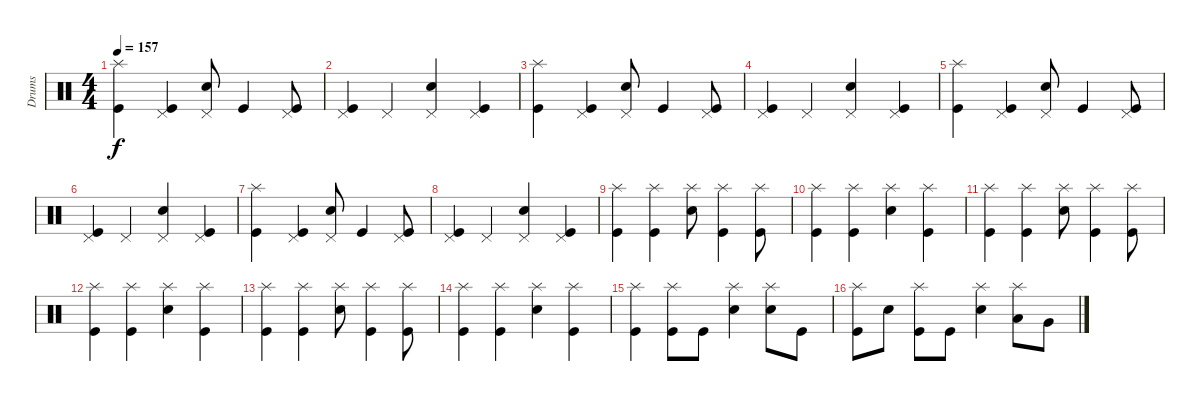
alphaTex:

\track ("Drums" "Drums") {instrument percussion}
\staff {score}
\articulation defaults
\ts (4 4)
\tempo 157
\clef neutral
\ks c
("Splash (hit)" "Kick (hit)").4{dy f} ("Pedal Hi-Hat (hit)" "Kick (hit)").4 ("Pedal Hi-Hat (hit)" "Electric Snare (hit)").8 "Kick (hit)".4 ("Pedal Hi-Hat (hit)" "Kick (hit)").8 |
("Pedal Hi-Hat (hit)" "Kick (hit)").4 "Pedal Hi-Hat (hit)".4 ("Pedal Hi-Hat (hit)" "Electric Snare (hit)").4 ("Pedal Hi-Hat (hit)" "Kick (hit)").4 |
("Splash (hit)" "Kick (hit)").4 ("Pedal Hi-Hat (hit)" "Kick (hit)").4 ("Pedal Hi-Hat (hit)" "Electric Snare (hit)").8 "Kick (hit)".4 ("Pedal Hi-Hat (hit)" "Kick (hit)").8 |
("Pedal Hi-Hat (hit)" "Kick (hit)").4 "Pedal Hi-Hat (hit)".4 ("Pedal Hi-Hat (hit)" "Electric Snare (hit)").4 ("Pedal Hi-Hat (hit)" "Kick (hit)").4 |
("Splash (hit)" "Kick (hit)").4 ("Pedal Hi-Hat (hit)" "Kick (hit)").4 ("Pedal Hi-Hat (hit)" "Electric Snare (hit)").8 "Kick (hit)".4 ("Pedal Hi-Hat (hit)" "Kick (hit)").8 |
("Pedal Hi-Hat (hit)" "Kick (hit)").4 "Pedal Hi-Hat (hit)".4 ("Pedal Hi-Hat (hit)" "Electric Snare (hit)").4 ("Pedal Hi-Hat (hit)" "Kick (hit)").4 |
("Splash (hit)" "Kick (hit)").4 ("Pedal Hi-Hat (hit)" "Kick (hit)").4 ("Pedal Hi-Hat (hit)" "Electric Snare (hit)").8 "Kick (hit)".4 ("Pedal Hi-Hat (hit)" "Kick (hit)").8 |
("Pedal Hi-Hat (hit)" "Kick (hit)").4 "Pedal Hi-Hat (hit)".4 ("Pedal Hi-Hat (hit)" "Electric Snare (hit)").4 ("Pedal Hi-Hat (hit)" "Kick (hit)").4 |
("Splash (hit)" "Kick (hit)").4 ("Splash (hit)" "Kick (hit)").4 ("Splash (hit)" "Electric Snare (hit)").8 ("Splash (hit)" "Kick (hit)").4 ("Splash (hit)" "Kick (hit)").8 |
("Splash (hit)" "Kick (hit)").4 ("Splash (hit)" "Kick (hit)").4 ("Splash (hit)" "Electric Snare (hit)").4 ("Splash (hit)" "Kick (hit)").4 |
("Splash (hit)" "Kick (hit)").4 ("Splash (hit)" "Kick (hit)").4 ("Splash (hit)" "Electric Snare (hit)").8 ("Splash (hit)" "Kick (hit)").4 ("Splash (hit)" "Kick (hit)").8 |
("Splash (hit)" "Kick (hit)").4 ("Splash (hit)" "Kick (hit)").4 ("Splash (hit)" "Electric Snare (hit)").4 ("Splash (hit)" "Kick (hit)").4 |
("Splash (hit)" "Kick (hit)").4 ("Splash (hit)" "Kick (hit)").4 ("Splash (hit)" "Electric Snare (hit)").8 ("Splash (hit)" "Kick (hit)").4 ("Splash (hit)" "Kick (hit)").8 |
("Splash (hit)" "Kick (hit)").4 ("Splash (hit)" "Kick (hit)").4 ("Splash (hit)" "Electric Snare (hit)").4 ("Splash (hit)" "Kick (hit)").4 |
("Splash (hit)" "Kick (hit)").4 ("Splash (hit)" "Kick (hit)").8 "Kick (hit)".8 ("Splash (hit)" "Electric Snare (hit)").4 ("Splash (hit)" "Electric Snare (hit)").8 "Kick (hit)".8 |
("Splash (hit)" "Kick (hit)").8 "Electric Snare (hit)".8 ("Splash (hit)" "Kick (hit)").8 "Kick (hit)".8 ("Splash (hit)" "Electric Snare (hit)").4 ("Splash (hit)" "Low Tom (hit)").8 "Very Low Tom (hit)".8
